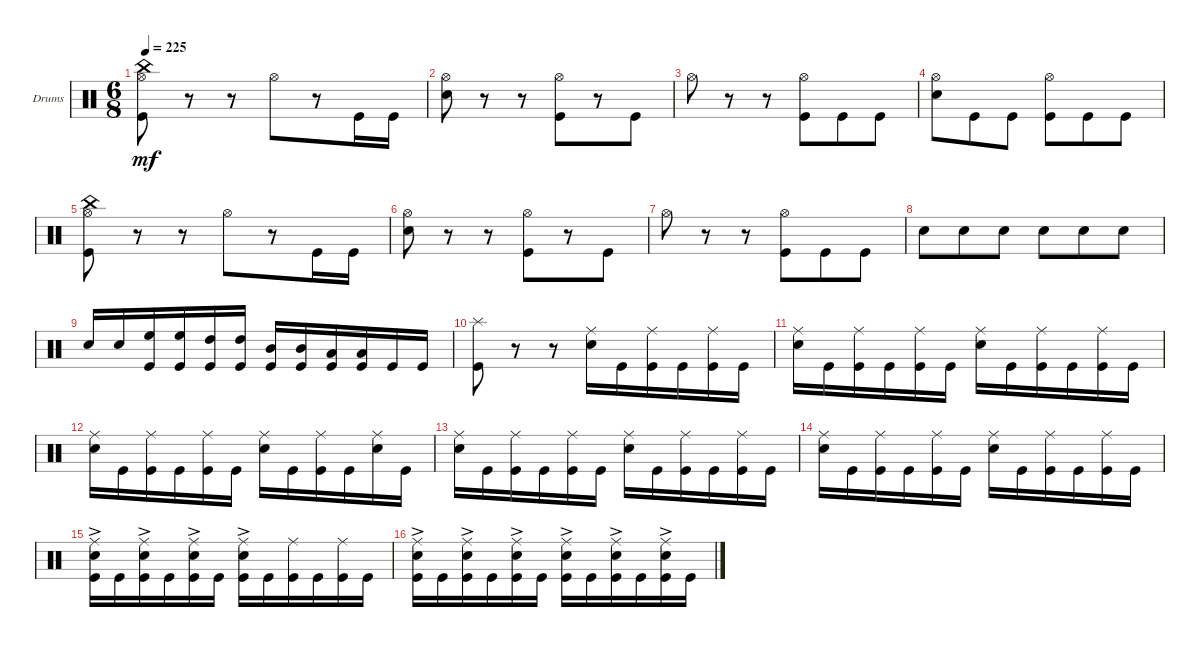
\bracketExtendMode groupsimilarinstruments
\firstSystemTrackNameOrientation horizontal
\otherSystemsTrackNameOrientation horizontal
\track ("Drumkit" "Drums") {instrument percussion}
\staff {score}
\articulation defaults
\ts (6 8)
\tempo 225
\clef neutral
\ks c
("Kick (hit)" "Hi-Hat (open)" "China (hit)").8{dy mf} r.8 r.8 "Hi-Hat (open)".8 r.8 "Kick (hit)".16 "Kick (hit)".16 |
("Snare (hit) 2" "Hi-Hat (open)").8 r.8 r.8 ("Kick (hit)" "Hi-Hat (open)").8 r.8 "Kick (hit)".8 |
"Hi-Hat (open)".8 r.8 r.8 ("Kick (hit)" "Hi-Hat (open)").8 "Kick (hit)".8 "Kick (hit)".8 |
("Snare (hit) 2" "Hi-Hat (open)").8 "Kick (hit)".8 "Kick (hit)".8 ("Kick (hit)" "Hi-Hat (open)").8 "Kick (hit)".8 "Kick (hit)".8 |
("Kick (hit)" "Hi-Hat (open)" "China (hit)").8 r.8 r.8 "Hi-Hat (open)".8 r.8 "Kick (hit)".16 "Kick (hit)".16 |
("Snare (hit) 2" "Hi-Hat (open)").8 r.8 r.8 ("Kick (hit)" "Hi-Hat (open)").8 r.8 "Kick (hit)".8 |
"Hi-Hat (open)".8 r.8 r.8 ("Kick (hit)" "Hi-Hat (open)").8 "Kick (hit)".8 "Kick (hit)".8 |
"Snare (hit) 2".8 "Snare (hit) 2".8 "Snare (hit) 2".8 "Snare (hit) 2".8 "Snare (hit) 2".8 "Snare (hit) 2".8 |
"Snare (hit) 2".16 "Snare (hit) 2".16 ("Kick (hit)" "High Floor Tom (hit)").16 ("Kick (hit)" "High Floor Tom (hit)").16 ("Kick (hit)" "High Tom (hit)").16 ("Kick (hit)" "High Tom (hit)").16 ("Kick (hit)" "Mid Tom (hit)").16 ("Kick (hit)" "Mid Tom (hit)").16 ("Kick (hit)" "Low Tom (hit)").16 ("Kick (hit)" "Low Tom (hit)").16 "Kick (hit)".16 "Kick (hit)".16 |
("Kick (hit)" "Splash (hit)").8 r.8 r.8 ("Snare (hit) 2" "Ride (middle)").16 "Kick (hit)".16 ("Kick (hit)" "Ride (middle)").16 "Kick (hit)".16 ("Kick (hit)" "Ride (middle)").16 "Kick (hit)".16 |
("Snare (hit) 2" "Ride (middle)").16 "Kick (hit)".16 ("Kick (hit)" "Ride (middle)").16 "Kick (hit)".16 ("Kick (hit)" "Ride (middle)").16 "Kick (hit)".16 ("Snare (hit) 2" "Ride (middle)").16 "Kick (hit)".16 ("Kick (hit)" "Ride (middle)").16 "Kick (hit)".16 ("Kick (hit)" "Ride (middle)").16 "Kick (hit)".16 |
("Snare (hit) 2" "Ride (middle)").16 "Kick (hit)".16 ("Kick (hit)" "Ride (middle)").16 "Kick (hit)".16 ("Kick (hit)" "Ride (middle)").16 "Kick (hit)".16 ("Snare (hit) 2" "Ride (middle)").16 "Kick (hit)".16 ("Kick (hit)" "Ride (middle)").16 "Kick (hit)".16 ("Ride (middle)" "Snare (hit) 2").16 "Kick (hit)".16 |
("Snare (hit) 2" "Ride (middle)").16 "Kick (hit)".16 ("Kick (hit)" "Ride (middle)").16 "Kick (hit)".16 ("Kick (hit)" "Ride (middle)").16 "Kick (hit)".16 ("Snare (hit) 2" "Ride (middle)").16 "Kick (hit)".16 ("Kick (hit)" "Ride (middle)").16 "Kick (hit)".16 ("Kick (hit)" "Ride (middle)").16 "Kick (hit)".16 |
("Snare (hit) 2" "Ride (middle)").16 "Kick (hit)".16 ("Kick (hit)" "Ride (middle)").16 "Kick (hit)".16 ("Kick (hit)" "Ride (middle)").16 "Kick (hit)".16 ("Snare (hit) 2" "Ride (middle)").16 "Kick (hit)".16 ("Kick (hit)" "Ride (middle)").16 "Kick (hit)".16 ("Kick (hit)" "Ride (middle)").16 "Kick (hit)".16 |
("Snare (hit) 2"{ac} "Kick (hit)" "Ride (middle)").16 "Kick (hit)".16 ("Snare (hit) 2"{ac} "Kick (hit)" "Ride (middle)").16 "Kick (hit)".16 ("Snare (hit) 2"{ac} "Kick (hit)" "Ride (middle)").16 "Kick (hit)".16 ("Snare (hit) 2"{ac} "Kick (hit)" "Ride (middle)").16 "Kick (hit)".16 ("Kick (hit)" "Ride (middle)").16 "Kick (hit)".16 ("Kick (hit)" "Ride (middle)").16 "Kick (hit)".16 |
("Snare (hit) 2"{ac} "Kick (hit)" "Ride (middle)").16 "Kick (hit)".16 ("Snare (hit) 2"{ac} "Kick (hit)" "Ride (middle)").16 "Kick (hit)".16 ("Snare (hit) 2"{ac} "Kick (hit)" "Ride (middle)").16 "Kick (hit)".16 ("Snare (hit) 2"{ac} "Kick (hit)" "Ride (middle)").16 "Kick (hit)".16 ("Kick (hit)" "Snare (hit) 2"{ac} "Ride (middle)").16 "Kick (hit)".16 ("Kick (hit)" "Snare (hit) 2"{ac} "Ride (middle)").16 "Kick (hit)".16
